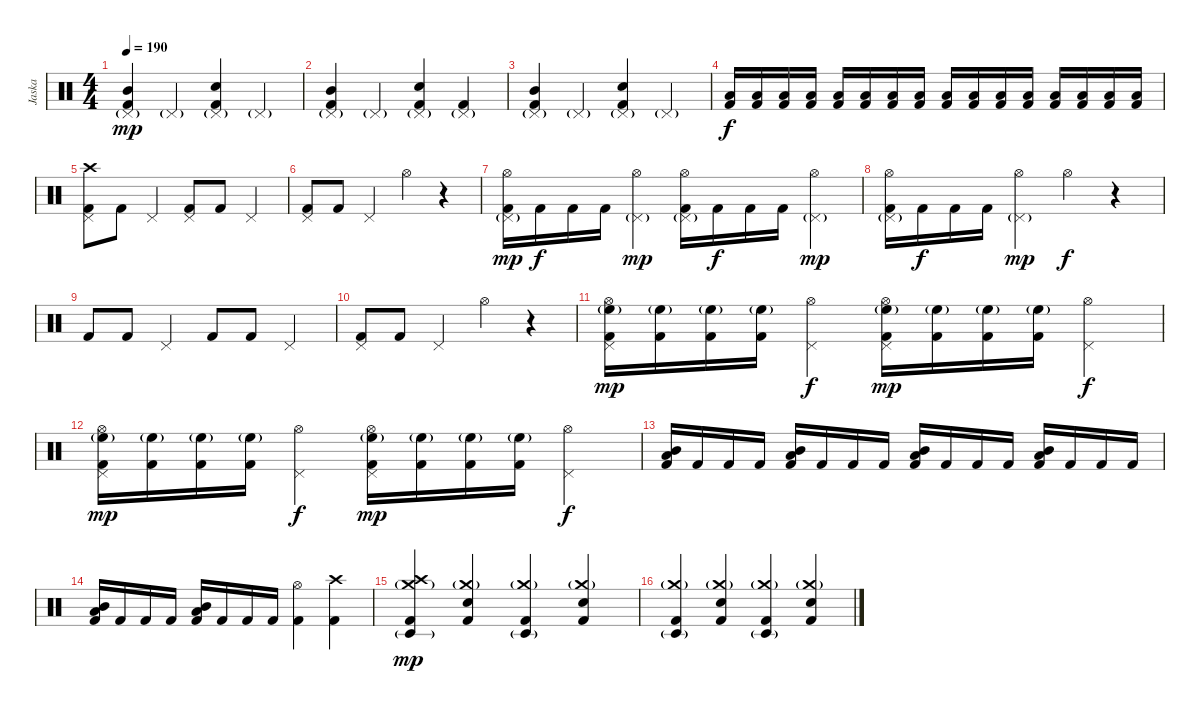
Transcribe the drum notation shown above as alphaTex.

\track ("Jaska" "Jaska") {instrument percussion}
\staff {score}
\articulation defaults
\ts (4 4)
\tempo 190
\clef neutral
\ks c
("Kick (hit) 2" "Pedal Hi-Hat (hit)"{g} "Mid Tom (hit)").4{dy mp} "Pedal Hi-Hat (hit)"{g}.4 ("Kick (hit) 2" "Pedal Hi-Hat (hit)"{g} "Electric Snare (hit)").4 "Pedal Hi-Hat (hit)"{g}.4 |
("Kick (hit) 2" "Pedal Hi-Hat (hit)"{g} "Mid Tom (hit)").4 "Pedal Hi-Hat (hit)"{g}.4 ("Kick (hit) 2" "Pedal Hi-Hat (hit)"{g} "Electric Snare (hit)").4 ("Kick (hit) 2" "Pedal Hi-Hat (hit)"{g}).4 |
("Kick (hit) 2" "Pedal Hi-Hat (hit)"{g} "Mid Tom (hit)").4 "Pedal Hi-Hat (hit)"{g}.4 ("Kick (hit) 2" "Pedal Hi-Hat (hit)"{g} "Electric Snare (hit)").4 "Pedal Hi-Hat (hit)"{g}.4 |
("Kick (hit) 2" "Low Tom (hit)").16{dy f} ("Kick (hit) 2" "Low Tom (hit)").16 ("Kick (hit) 2" "Low Tom (hit)").16 ("Kick (hit) 2" "Low Tom (hit)").16 ("Kick (hit) 2" "Low Tom (hit)").16 ("Kick (hit) 2" "Low Tom (hit)").16 ("Kick (hit) 2" "Low Tom (hit)").16 ("Kick (hit) 2" "Low Tom (hit)").16 ("Kick (hit) 2" "Low Floor Tom (hit)").16 ("Kick (hit) 2" "Low Floor Tom (hit)").16 ("Kick (hit) 2" "Low Floor Tom (hit)").16 ("Kick (hit) 2" "Low Floor Tom (hit)").16 ("Kick (hit) 2" "Low Tom (hit)").16 ("Kick (hit) 2" "Low Tom (hit)").16 ("Kick (hit) 2" "Low Tom (hit)").16 ("Kick (hit) 2" "Low Tom (hit)").16 |
("Kick (hit) 2" "Crash high (hit)" "Pedal Hi-Hat (hit)").8 "Kick (hit) 2".8 "Pedal Hi-Hat (hit)".4 ("Kick (hit) 2" "Pedal Hi-Hat (hit)").8 "Kick (hit) 2".8 "Pedal Hi-Hat (hit)".4 |
("Kick (hit) 2" "Pedal Hi-Hat (hit)").8 "Kick (hit) 2".8 "Pedal Hi-Hat (hit)".4 "Hi-Hat (open)".4 r.4 |
("Kick (hit) 2" "Hi-Hat (open)" "Pedal Hi-Hat (hit)"{g}).16{dy mp} "Kick (hit) 2".16{dy f} "Kick (hit) 2".16 "Kick (hit) 2".16 ("Hi-Hat (open)" "Pedal Hi-Hat (hit)"{g}).4{dy mp} ("Kick (hit) 2" "Hi-Hat (open)" "Pedal Hi-Hat (hit)"{g}).16 "Kick (hit) 2".16{dy f} "Kick (hit) 2".16 "Kick (hit) 2".16 ("Hi-Hat (open)" "Pedal Hi-Hat (hit)"{g}).4{dy mp} |
("Kick (hit) 2" "Hi-Hat (open)" "Pedal Hi-Hat (hit)"{g}).16 "Kick (hit) 2".16{dy f} "Kick (hit) 2".16 "Kick (hit) 2".16 ("Hi-Hat (open)" "Pedal Hi-Hat (hit)"{g}).4{dy mp} "Hi-Hat (open)".4{dy f} r.4 |
"Kick (hit) 2".8 "Kick (hit) 2".8 "Pedal Hi-Hat (hit)".4 "Kick (hit) 2".8 "Kick (hit) 2".8 "Pedal Hi-Hat (hit)".4 |
("Kick (hit) 2" "Pedal Hi-Hat (hit)").8 "Kick (hit) 2".8 "Pedal Hi-Hat (hit)".4 "Hi-Hat (open)".4 r.4 |
("Kick (hit) 2" "High Floor Tom (hit)"{g} "Pedal Hi-Hat (hit)" "Hi-Hat (open)").16{dy mp} ("Kick (hit) 2" "High Floor Tom (hit)"{g}).16 ("Kick (hit) 2" "High Floor Tom (hit)"{g}).16 ("Kick (hit) 2" "High Floor Tom (hit)"{g}).16 ("Pedal Hi-Hat (hit)" "Hi-Hat (open)").4{dy f} ("Kick (hit) 2" "High Floor Tom (hit)"{g} "Pedal Hi-Hat (hit)" "Hi-Hat (open)").16{dy mp} ("Kick (hit) 2" "High Floor Tom (hit)"{g}).16 ("Kick (hit) 2" "High Floor Tom (hit)"{g}).16 ("Kick (hit) 2" "High Floor Tom (hit)"{g}).16 ("Pedal Hi-Hat (hit)" "Hi-Hat (open)").4{dy f} |
("Kick (hit) 2" "High Floor Tom (hit)"{g} "Pedal Hi-Hat (hit)" "Hi-Hat (open)").16{dy mp} ("Kick (hit) 2" "High Floor Tom (hit)"{g}).16 ("Kick (hit) 2" "High Floor Tom (hit)"{g}).16 ("Kick (hit) 2" "High Floor Tom (hit)"{g}).16 ("Pedal Hi-Hat (hit)" "Hi-Hat (open)").4{dy f} ("Kick (hit) 2" "High Floor Tom (hit)"{g} "Pedal Hi-Hat (hit)" "Hi-Hat (open)").16{dy mp} ("Kick (hit) 2" "High Floor Tom (hit)"{g}).16 ("Kick (hit) 2" "High Floor Tom (hit)"{g}).16 ("Kick (hit) 2" "High Floor Tom (hit)"{g}).16 ("Pedal Hi-Hat (hit)" "Hi-Hat (open)").4{dy f} |
("Kick (hit) 2" "Mid Tom (hit)" "Low Tom (hit)").16 "Kick (hit) 2".16 "Kick (hit) 2".16 "Kick (hit) 2".16 ("Kick (hit) 2" "Mid Tom (hit)" "Low Tom (hit)").16 "Kick (hit) 2".16 "Kick (hit) 2".16 "Kick (hit) 2".16 ("Kick (hit) 2" "Mid Tom (hit)" "Low Tom (hit)").16 "Kick (hit) 2".16 "Kick (hit) 2".16 "Kick (hit) 2".16 ("Kick (hit) 2" "Mid Tom (hit)" "Low Tom (hit)").16 "Kick (hit) 2".16 "Kick (hit) 2".16 "Kick (hit) 2".16 |
("Kick (hit) 2" "Mid Tom (hit)" "Low Tom (hit)").16 "Kick (hit) 2".16 "Kick (hit) 2".16 "Kick (hit) 2".16 ("Kick (hit) 2" "Mid Tom (hit)" "Low Tom (hit)").16 "Kick (hit) 2".16 "Kick (hit) 2".16 "Kick (hit) 2".16 ("Kick (hit) 2" "Hi-Hat (open)").4 ("Kick (hit) 2" "Crash high (hit)").4 |
("Kick (hit) 2" "Crash medium (hit)"{g} "Crash high (hit)" "Timbale low (hit)"{g}).4{dy mp} ("Kick (hit) 2" "Crash medium (hit)"{g} "Snare (hit) 2").4 ("Kick (hit) 2" "Crash medium (hit)"{g} "Timbale low (hit)"{g}).4 ("Kick (hit) 2" "Crash medium (hit)"{g} "Snare (hit) 2").4 |
("Kick (hit) 2" "Crash medium (hit)"{g} "Timbale low (hit)"{g}).4 ("Kick (hit) 2" "Crash medium (hit)"{g} "Snare (hit) 2").4 ("Kick (hit) 2" "Crash medium (hit)"{g} "Timbale low (hit)"{g}).4 ("Kick (hit) 2" "Crash medium (hit)"{g} "Snare (hit) 2").4
